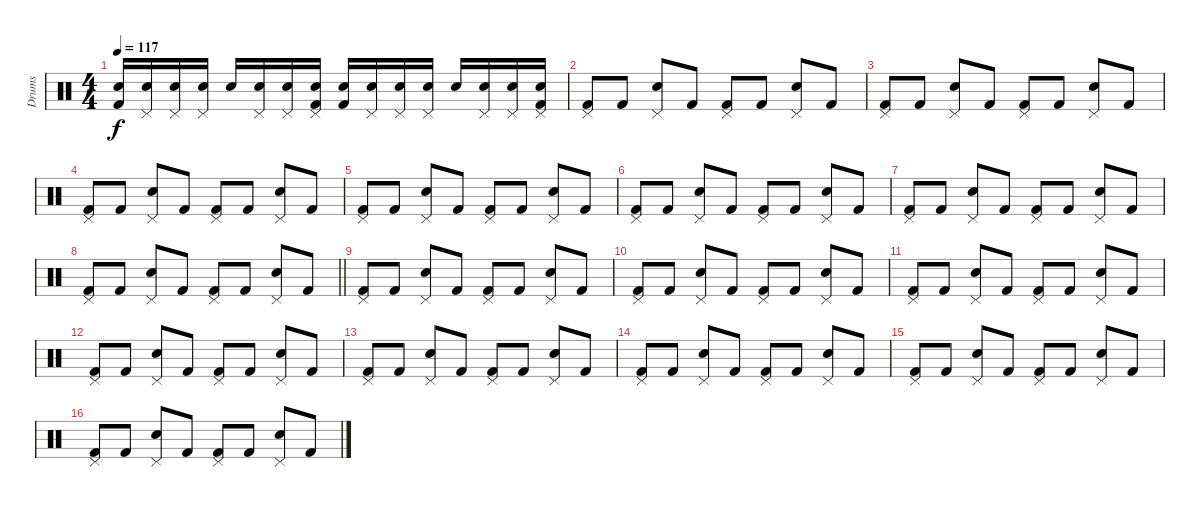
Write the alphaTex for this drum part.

\track ("Drums" "Drums") {instrument percussion}
\staff {score}
\articulation defaults
\ts (4 4)
\tempo 117
\clef neutral
\ks c
("Kick (hit) 2" "Snare (hit) 2").16{dy f} ("Snare (hit) 2" "Pedal Hi-Hat (hit)").16 ("Snare (hit) 2" "Pedal Hi-Hat (hit)").16 ("Snare (hit) 2" "Pedal Hi-Hat (hit)").16 "Snare (hit) 2".16 ("Snare (hit) 2" "Pedal Hi-Hat (hit)").16 ("Snare (hit) 2" "Pedal Hi-Hat (hit)").16 ("Kick (hit) 2" "Snare (hit) 2" "Pedal Hi-Hat (hit)").16 ("Kick (hit) 2" "Snare (hit) 2").16 ("Snare (hit) 2" "Pedal Hi-Hat (hit)").16 ("Snare (hit) 2" "Pedal Hi-Hat (hit)").16 ("Snare (hit) 2" "Pedal Hi-Hat (hit)").16 "Snare (hit) 2".16 ("Snare (hit) 2" "Pedal Hi-Hat (hit)").16 ("Snare (hit) 2" "Pedal Hi-Hat (hit)").16 ("Kick (hit) 2" "Snare (hit) 2" "Pedal Hi-Hat (hit)").16 |
("Kick (hit) 2" "Pedal Hi-Hat (hit)").8 "Kick (hit) 2".8 ("Snare (hit) 2" "Pedal Hi-Hat (hit)").8 "Kick (hit) 2".8 ("Kick (hit) 2" "Pedal Hi-Hat (hit)").8 "Kick (hit) 2".8 ("Snare (hit) 2" "Pedal Hi-Hat (hit)").8 "Kick (hit) 2".8 |
("Kick (hit) 2" "Pedal Hi-Hat (hit)").8 "Kick (hit) 2".8 ("Snare (hit) 2" "Pedal Hi-Hat (hit)").8 "Kick (hit) 2".8 ("Kick (hit) 2" "Pedal Hi-Hat (hit)").8 "Kick (hit) 2".8 ("Snare (hit) 2" "Pedal Hi-Hat (hit)").8 "Kick (hit) 2".8 |
("Kick (hit) 2" "Pedal Hi-Hat (hit)").8 "Kick (hit) 2".8 ("Snare (hit) 2" "Pedal Hi-Hat (hit)").8 "Kick (hit) 2".8 ("Kick (hit) 2" "Pedal Hi-Hat (hit)").8 "Kick (hit) 2".8 ("Snare (hit) 2" "Pedal Hi-Hat (hit)").8 "Kick (hit) 2".8 |
("Kick (hit) 2" "Pedal Hi-Hat (hit)").8 "Kick (hit) 2".8 ("Snare (hit) 2" "Pedal Hi-Hat (hit)").8 "Kick (hit) 2".8 ("Kick (hit) 2" "Pedal Hi-Hat (hit)").8 "Kick (hit) 2".8 ("Snare (hit) 2" "Pedal Hi-Hat (hit)").8 "Kick (hit) 2".8 |
("Kick (hit) 2" "Pedal Hi-Hat (hit)").8 "Kick (hit) 2".8 ("Snare (hit) 2" "Pedal Hi-Hat (hit)").8 "Kick (hit) 2".8 ("Kick (hit) 2" "Pedal Hi-Hat (hit)").8 "Kick (hit) 2".8 ("Snare (hit) 2" "Pedal Hi-Hat (hit)").8 "Kick (hit) 2".8 |
("Kick (hit) 2" "Pedal Hi-Hat (hit)").8 "Kick (hit) 2".8 ("Snare (hit) 2" "Pedal Hi-Hat (hit)").8 "Kick (hit) 2".8 ("Kick (hit) 2" "Pedal Hi-Hat (hit)").8 "Kick (hit) 2".8 ("Snare (hit) 2" "Pedal Hi-Hat (hit)").8 "Kick (hit) 2".8 |
\barLineRight lightlight
("Kick (hit) 2" "Pedal Hi-Hat (hit)").8 "Kick (hit) 2".8 ("Snare (hit) 2" "Pedal Hi-Hat (hit)").8 "Kick (hit) 2".8 ("Kick (hit) 2" "Pedal Hi-Hat (hit)").8 "Kick (hit) 2".8 ("Snare (hit) 2" "Pedal Hi-Hat (hit)").8 "Kick (hit) 2".8 |
("Kick (hit) 2" "Pedal Hi-Hat (hit)").8 "Kick (hit) 2".8 ("Snare (hit) 2" "Pedal Hi-Hat (hit)").8 "Kick (hit) 2".8 ("Kick (hit) 2" "Pedal Hi-Hat (hit)").8 "Kick (hit) 2".8 ("Snare (hit) 2" "Pedal Hi-Hat (hit)").8 "Kick (hit) 2".8 |
("Kick (hit) 2" "Pedal Hi-Hat (hit)").8 "Kick (hit) 2".8 ("Snare (hit) 2" "Pedal Hi-Hat (hit)").8 "Kick (hit) 2".8 ("Kick (hit) 2" "Pedal Hi-Hat (hit)").8 "Kick (hit) 2".8 ("Snare (hit) 2" "Pedal Hi-Hat (hit)").8 "Kick (hit) 2".8 |
("Kick (hit) 2" "Pedal Hi-Hat (hit)").8 "Kick (hit) 2".8 ("Snare (hit) 2" "Pedal Hi-Hat (hit)").8 "Kick (hit) 2".8 ("Kick (hit) 2" "Pedal Hi-Hat (hit)").8 "Kick (hit) 2".8 ("Snare (hit) 2" "Pedal Hi-Hat (hit)").8 "Kick (hit) 2".8 |
("Kick (hit) 2" "Pedal Hi-Hat (hit)").8 "Kick (hit) 2".8 ("Snare (hit) 2" "Pedal Hi-Hat (hit)").8 "Kick (hit) 2".8 ("Kick (hit) 2" "Pedal Hi-Hat (hit)").8 "Kick (hit) 2".8 ("Snare (hit) 2" "Pedal Hi-Hat (hit)").8 "Kick (hit) 2".8 |
("Kick (hit) 2" "Pedal Hi-Hat (hit)").8 "Kick (hit) 2".8 ("Snare (hit) 2" "Pedal Hi-Hat (hit)").8 "Kick (hit) 2".8 ("Kick (hit) 2" "Pedal Hi-Hat (hit)").8 "Kick (hit) 2".8 ("Snare (hit) 2" "Pedal Hi-Hat (hit)").8 "Kick (hit) 2".8 |
("Kick (hit) 2" "Pedal Hi-Hat (hit)").8 "Kick (hit) 2".8 ("Snare (hit) 2" "Pedal Hi-Hat (hit)").8 "Kick (hit) 2".8 ("Kick (hit) 2" "Pedal Hi-Hat (hit)").8 "Kick (hit) 2".8 ("Snare (hit) 2" "Pedal Hi-Hat (hit)").8 "Kick (hit) 2".8 |
("Kick (hit) 2" "Pedal Hi-Hat (hit)").8 "Kick (hit) 2".8 ("Snare (hit) 2" "Pedal Hi-Hat (hit)").8 "Kick (hit) 2".8 ("Kick (hit) 2" "Pedal Hi-Hat (hit)").8 "Kick (hit) 2".8 ("Snare (hit) 2" "Pedal Hi-Hat (hit)").8 "Kick (hit) 2".8 |
("Kick (hit) 2" "Pedal Hi-Hat (hit)").8 "Kick (hit) 2".8 ("Snare (hit) 2" "Pedal Hi-Hat (hit)").8 "Kick (hit) 2".8 ("Kick (hit) 2" "Pedal Hi-Hat (hit)").8 "Kick (hit) 2".8 ("Snare (hit) 2" "Pedal Hi-Hat (hit)").8 "Kick (hit) 2".8
